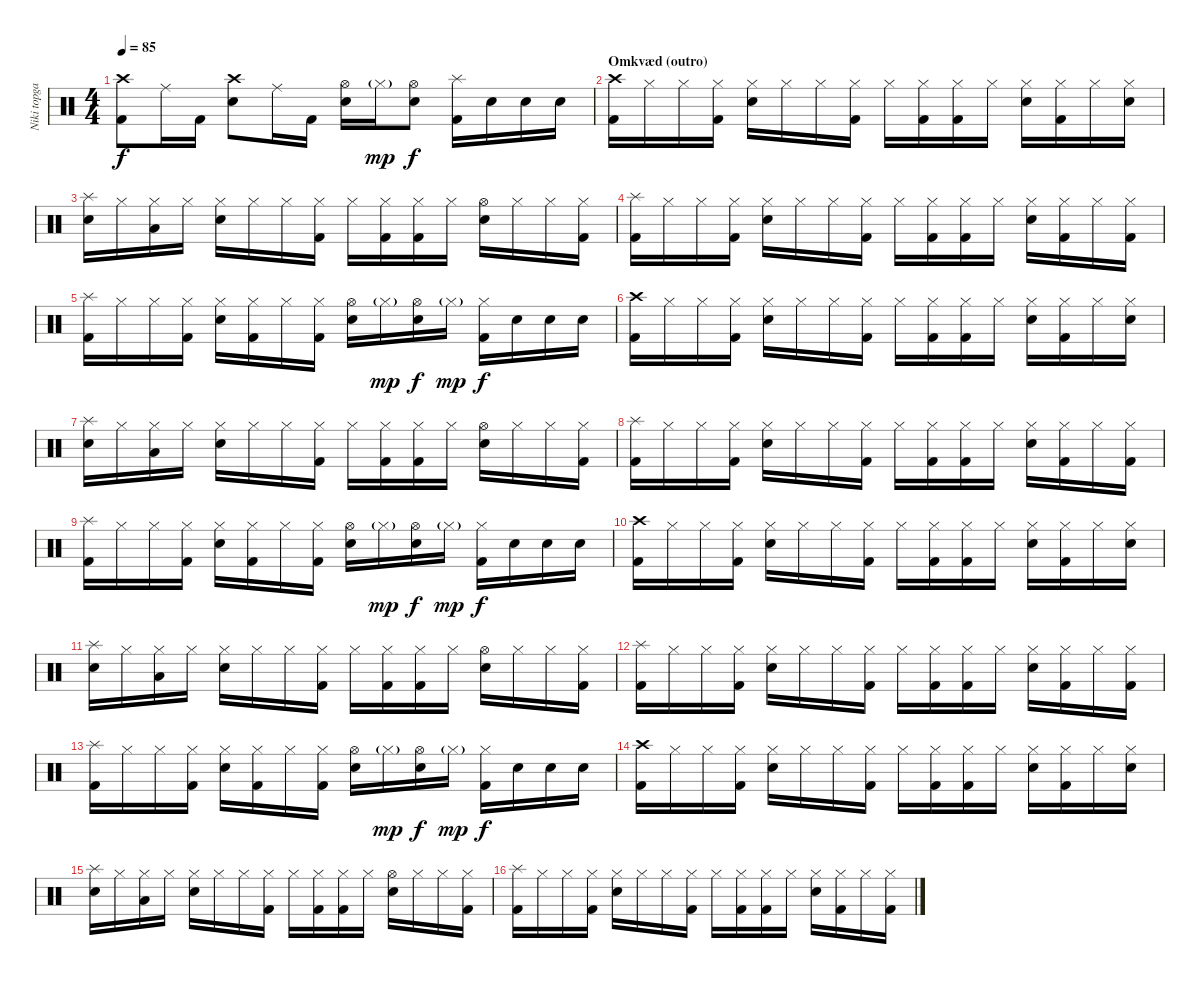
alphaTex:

\track ("Niki topgaard" "Niki topga") {instrument percussion}
\staff {score}
\articulation defaults
\ts (4 4)
\tempo 85
\clef neutral
\ks c
("Crash high (hit)" "Kick (hit) 2").8{dy f} "Ride (middle)".16 "Kick (hit) 2".16 ("Crash high (hit)" "Snare (hit) 2").8 "Ride (middle)".16 "Kick (hit) 2".16 ("Hi-Hat (open)" "Snare (hit) 2").16 "Hi-Hat (closed)"{g}.16{dy mp} ("Hi-Hat (open)" "Snare (hit) 2").8{dy f} ("Splash (hit)" "Kick (hit) 2").16 "Snare (hit) 2".16 "Snare (hit) 2".16 "Snare (hit) 2".16 |
\section ("" "Omkvæd (outro)")
("Crash high (hit)" "Kick (hit) 2").16 "Hi-Hat (closed)".16 "Hi-Hat (closed)".16 ("Hi-Hat (closed)" "Kick (hit) 2").16 ("Hi-Hat (closed)" "Snare (hit) 2").16 "Hi-Hat (closed)".16 "Hi-Hat (closed)".16 ("Hi-Hat (closed)" "Kick (hit) 2").16 "Hi-Hat (closed)".16 ("Hi-Hat (closed)" "Kick (hit) 2").16 ("Hi-Hat (closed)" "Kick (hit) 2").16 "Hi-Hat (closed)".16 ("Hi-Hat (closed)" "Snare (hit) 2").16 ("Hi-Hat (closed)" "Kick (hit) 2").16 "Hi-Hat (closed)".16 ("Hi-Hat (closed)" "Snare (hit) 2").16 |
("Splash (hit)" "Snare (hit) 2").16 "Hi-Hat (closed)".16 ("Hi-Hat (closed)" "Low Tom (hit)").16 "Hi-Hat (closed)".16 ("Hi-Hat (closed)" "Snare (hit) 2").16 "Hi-Hat (closed)".16 "Hi-Hat (closed)".16 ("Hi-Hat (closed)" "Kick (hit) 2").16 "Hi-Hat (closed)".16 ("Hi-Hat (closed)" "Kick (hit) 2").16 ("Hi-Hat (closed)" "Kick (hit) 2").16 "Hi-Hat (closed)".16 ("Hi-Hat (open)" "Snare (hit) 2").16 "Hi-Hat (closed)".16 "Hi-Hat (closed)".16 ("Hi-Hat (closed)" "Kick (hit) 2").16 |
("Splash (hit)" "Kick (hit) 2").16 "Hi-Hat (closed)".16 "Hi-Hat (closed)".16 ("Hi-Hat (closed)" "Kick (hit) 2").16 ("Hi-Hat (closed)" "Snare (hit) 2").16 "Hi-Hat (closed)".16 "Hi-Hat (closed)".16 ("Hi-Hat (closed)" "Kick (hit) 2").16 "Hi-Hat (closed)".16 ("Hi-Hat (closed)" "Kick (hit) 2").16 ("Hi-Hat (closed)" "Kick (hit) 2").16 "Hi-Hat (closed)".16 ("Hi-Hat (closed)" "Snare (hit) 2").16 ("Hi-Hat (closed)" "Kick (hit) 2").16 "Hi-Hat (closed)".16 ("Hi-Hat (closed)" "Kick (hit) 2").16 |
("Splash (hit)" "Kick (hit) 2").16 "Hi-Hat (closed)".16 "Hi-Hat (closed)".16 ("Hi-Hat (closed)" "Kick (hit) 2").16 ("Hi-Hat (closed)" "Snare (hit) 2").16 ("Hi-Hat (closed)" "Kick (hit) 2").16 "Hi-Hat (closed)".16 ("Hi-Hat (closed)" "Kick (hit) 2").16 ("Hi-Hat (open)" "Snare (hit) 2").16 "Hi-Hat (closed)"{g}.16{dy mp} ("Hi-Hat (open)" "Snare (hit) 2").16{dy f} "Hi-Hat (closed)"{g}.16{dy mp} ("Hi-Hat (closed)" "Kick (hit) 2").16{dy f} "Snare (hit) 2".16 "Snare (hit) 2".16 "Snare (hit) 2".16 |
("Crash high (hit)" "Kick (hit) 2").16 "Hi-Hat (closed)".16 "Hi-Hat (closed)".16 ("Hi-Hat (closed)" "Kick (hit) 2").16 ("Hi-Hat (closed)" "Snare (hit) 2").16 "Hi-Hat (closed)".16 "Hi-Hat (closed)".16 ("Hi-Hat (closed)" "Kick (hit) 2").16 "Hi-Hat (closed)".16 ("Hi-Hat (closed)" "Kick (hit) 2").16 ("Hi-Hat (closed)" "Kick (hit) 2").16 "Hi-Hat (closed)".16 ("Hi-Hat (closed)" "Snare (hit) 2").16 ("Hi-Hat (closed)" "Kick (hit) 2").16 "Hi-Hat (closed)".16 ("Hi-Hat (closed)" "Snare (hit) 2").16 |
("Splash (hit)" "Snare (hit) 2").16 "Hi-Hat (closed)".16 ("Hi-Hat (closed)" "Low Tom (hit)").16 "Hi-Hat (closed)".16 ("Hi-Hat (closed)" "Snare (hit) 2").16 "Hi-Hat (closed)".16 "Hi-Hat (closed)".16 ("Hi-Hat (closed)" "Kick (hit) 2").16 "Hi-Hat (closed)".16 ("Hi-Hat (closed)" "Kick (hit) 2").16 ("Hi-Hat (closed)" "Kick (hit) 2").16 "Hi-Hat (closed)".16 ("Hi-Hat (open)" "Snare (hit) 2").16 "Hi-Hat (closed)".16 "Hi-Hat (closed)".16 ("Hi-Hat (closed)" "Kick (hit) 2").16 |
("Splash (hit)" "Kick (hit) 2").16 "Hi-Hat (closed)".16 "Hi-Hat (closed)".16 ("Hi-Hat (closed)" "Kick (hit) 2").16 ("Hi-Hat (closed)" "Snare (hit) 2").16 "Hi-Hat (closed)".16 "Hi-Hat (closed)".16 ("Hi-Hat (closed)" "Kick (hit) 2").16 "Hi-Hat (closed)".16 ("Hi-Hat (closed)" "Kick (hit) 2").16 ("Hi-Hat (closed)" "Kick (hit) 2").16 "Hi-Hat (closed)".16 ("Hi-Hat (closed)" "Snare (hit) 2").16 ("Hi-Hat (closed)" "Kick (hit) 2").16 "Hi-Hat (closed)".16 ("Hi-Hat (closed)" "Kick (hit) 2").16 |
("Splash (hit)" "Kick (hit) 2").16 "Hi-Hat (closed)".16 "Hi-Hat (closed)".16 ("Hi-Hat (closed)" "Kick (hit) 2").16 ("Hi-Hat (closed)" "Snare (hit) 2").16 ("Hi-Hat (closed)" "Kick (hit) 2").16 "Hi-Hat (closed)".16 ("Hi-Hat (closed)" "Kick (hit) 2").16 ("Hi-Hat (open)" "Snare (hit) 2").16 "Hi-Hat (closed)"{g}.16{dy mp} ("Hi-Hat (open)" "Snare (hit) 2").16{dy f} "Hi-Hat (closed)"{g}.16{dy mp} ("Hi-Hat (closed)" "Kick (hit) 2").16{dy f} "Snare (hit) 2".16 "Snare (hit) 2".16 "Snare (hit) 2".16 |
("Crash high (hit)" "Kick (hit) 2").16 "Hi-Hat (closed)".16 "Hi-Hat (closed)".16 ("Hi-Hat (closed)" "Kick (hit) 2").16 ("Hi-Hat (closed)" "Snare (hit) 2").16 "Hi-Hat (closed)".16 "Hi-Hat (closed)".16 ("Hi-Hat (closed)" "Kick (hit) 2").16 "Hi-Hat (closed)".16 ("Hi-Hat (closed)" "Kick (hit) 2").16 ("Hi-Hat (closed)" "Kick (hit) 2").16 "Hi-Hat (closed)".16 ("Hi-Hat (closed)" "Snare (hit) 2").16 ("Hi-Hat (closed)" "Kick (hit) 2").16 "Hi-Hat (closed)".16 ("Hi-Hat (closed)" "Snare (hit) 2").16 |
("Splash (hit)" "Snare (hit) 2").16 "Hi-Hat (closed)".16 ("Hi-Hat (closed)" "Low Tom (hit)").16 "Hi-Hat (closed)".16 ("Hi-Hat (closed)" "Snare (hit) 2").16 "Hi-Hat (closed)".16 "Hi-Hat (closed)".16 ("Hi-Hat (closed)" "Kick (hit) 2").16 "Hi-Hat (closed)".16 ("Hi-Hat (closed)" "Kick (hit) 2").16 ("Hi-Hat (closed)" "Kick (hit) 2").16 "Hi-Hat (closed)".16 ("Hi-Hat (open)" "Snare (hit) 2").16 "Hi-Hat (closed)".16 "Hi-Hat (closed)".16 ("Hi-Hat (closed)" "Kick (hit) 2").16 |
("Splash (hit)" "Kick (hit) 2").16 "Hi-Hat (closed)".16 "Hi-Hat (closed)".16 ("Hi-Hat (closed)" "Kick (hit) 2").16 ("Hi-Hat (closed)" "Snare (hit) 2").16 "Hi-Hat (closed)".16 "Hi-Hat (closed)".16 ("Hi-Hat (closed)" "Kick (hit) 2").16 "Hi-Hat (closed)".16 ("Hi-Hat (closed)" "Kick (hit) 2").16 ("Hi-Hat (closed)" "Kick (hit) 2").16 "Hi-Hat (closed)".16 ("Hi-Hat (closed)" "Snare (hit) 2").16 ("Hi-Hat (closed)" "Kick (hit) 2").16 "Hi-Hat (closed)".16 ("Hi-Hat (closed)" "Kick (hit) 2").16 |
("Splash (hit)" "Kick (hit) 2").16 "Hi-Hat (closed)".16 "Hi-Hat (closed)".16 ("Hi-Hat (closed)" "Kick (hit) 2").16 ("Hi-Hat (closed)" "Snare (hit) 2").16 ("Hi-Hat (closed)" "Kick (hit) 2").16 "Hi-Hat (closed)".16 ("Hi-Hat (closed)" "Kick (hit) 2").16 ("Hi-Hat (open)" "Snare (hit) 2").16 "Hi-Hat (closed)"{g}.16{dy mp} ("Hi-Hat (open)" "Snare (hit) 2").16{dy f} "Hi-Hat (closed)"{g}.16{dy mp} ("Hi-Hat (closed)" "Kick (hit) 2").16{dy f} "Snare (hit) 2".16 "Snare (hit) 2".16 "Snare (hit) 2".16 |
("Crash high (hit)" "Kick (hit) 2").16 "Hi-Hat (closed)".16 "Hi-Hat (closed)".16 ("Hi-Hat (closed)" "Kick (hit) 2").16 ("Hi-Hat (closed)" "Snare (hit) 2").16 "Hi-Hat (closed)".16 "Hi-Hat (closed)".16 ("Hi-Hat (closed)" "Kick (hit) 2").16 "Hi-Hat (closed)".16 ("Hi-Hat (closed)" "Kick (hit) 2").16 ("Hi-Hat (closed)" "Kick (hit) 2").16 "Hi-Hat (closed)".16 ("Hi-Hat (closed)" "Snare (hit) 2").16 ("Hi-Hat (closed)" "Kick (hit) 2").16 "Hi-Hat (closed)".16 ("Hi-Hat (closed)" "Snare (hit) 2").16 |
("Splash (hit)" "Snare (hit) 2").16 "Hi-Hat (closed)".16 ("Hi-Hat (closed)" "Low Tom (hit)").16 "Hi-Hat (closed)".16 ("Hi-Hat (closed)" "Snare (hit) 2").16 "Hi-Hat (closed)".16 "Hi-Hat (closed)".16 ("Hi-Hat (closed)" "Kick (hit) 2").16 "Hi-Hat (closed)".16 ("Hi-Hat (closed)" "Kick (hit) 2").16 ("Hi-Hat (closed)" "Kick (hit) 2").16 "Hi-Hat (closed)".16 ("Hi-Hat (open)" "Snare (hit) 2").16 "Hi-Hat (closed)".16 "Hi-Hat (closed)".16 ("Hi-Hat (closed)" "Kick (hit) 2").16 |
("Splash (hit)" "Kick (hit) 2").16 "Hi-Hat (closed)".16 "Hi-Hat (closed)".16 ("Hi-Hat (closed)" "Kick (hit) 2").16 ("Hi-Hat (closed)" "Snare (hit) 2").16 "Hi-Hat (closed)".16 "Hi-Hat (closed)".16 ("Hi-Hat (closed)" "Kick (hit) 2").16 "Hi-Hat (closed)".16 ("Hi-Hat (closed)" "Kick (hit) 2").16 ("Hi-Hat (closed)" "Kick (hit) 2").16 "Hi-Hat (closed)".16 ("Hi-Hat (closed)" "Snare (hit) 2").16 ("Hi-Hat (closed)" "Kick (hit) 2").16 "Hi-Hat (closed)".16 ("Hi-Hat (closed)" "Kick (hit) 2").16
